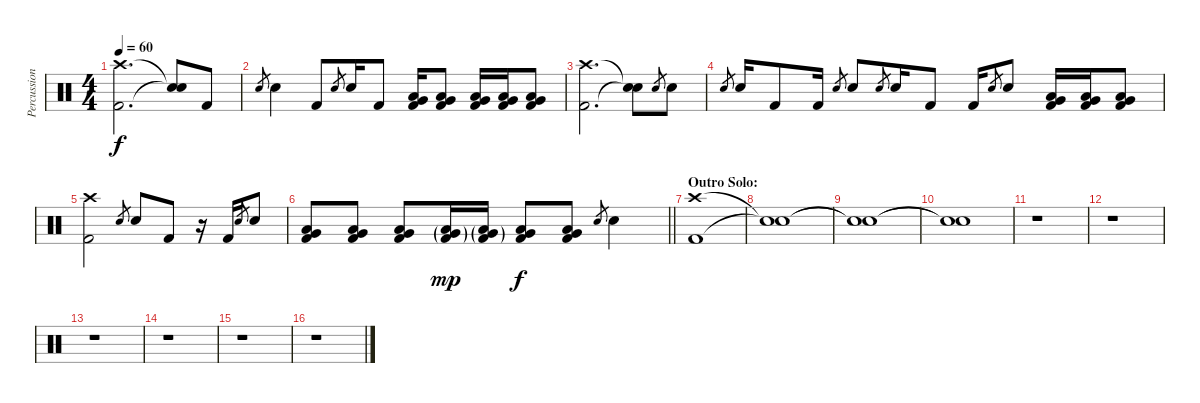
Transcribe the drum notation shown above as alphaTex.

\track ("Percussion" "Percussion") {instrument percussion}
\staff {score}
\articulation defaults
\ts (4 4)
\tempo 60
\clef neutral
\ks c
("Crash high (hit)" "Kick (hit) 2").2{d dy f} ("Snare (hit)"{t} "Snare (hit)"{t}).8 "Kick (hit) 2".8 |
"Snare (hit) 2".8{gr} "Snare (hit) 2".4 "Kick (hit) 2".8 "Snare (hit) 2".8{gr} "Snare (hit) 2".16 "Kick (hit) 2".8 ("Very Low Tom (hit)" "Low Tom (hit)" "Kick (hit) 2").16 ("Very Low Tom (hit)" "Low Tom (hit)" "Kick (hit) 2").8 ("Very Low Tom (hit)" "Low Tom (hit)" "Kick (hit) 2").16 ("Very Low Tom (hit)" "Low Tom (hit)" "Kick (hit) 2").16 ("Very Low Tom (hit)" "Low Tom (hit)" "Kick (hit) 2").8 |
("Crash high (hit)" "Kick (hit) 2").2{d} ("Snare (hit)"{t} "Snare (hit)"{t}).8 "Snare (hit) 2".8{gr} "Snare (hit) 2".8 |
"Snare (hit) 2".8{gr} "Snare (hit) 2".16 "Kick (hit) 2".8 "Kick (hit) 2".16 "Snare (hit) 2".8{gr} "Snare (hit) 2".8 "Snare (hit) 2".8{gr} "Snare (hit) 2".16 "Kick (hit) 2".8 "Kick (hit) 2".16 "Snare (hit) 2".8{gr} "Snare (hit) 2".8 ("Very Low Tom (hit)" "Low Tom (hit)" "Kick (hit) 2").16 ("Very Low Tom (hit)" "Low Tom (hit)" "Kick (hit) 2").16 ("Very Low Tom (hit)" "Low Tom (hit)" "Kick (hit) 2").8 |
("Crash high (hit)" "Kick (hit) 2").2 "Snare (hit) 2".8{gr} "Snare (hit) 2".8 "Kick (hit) 2".8 r.16 "Kick (hit) 2".16 "Snare (hit) 2".8{gr} "Snare (hit) 2".8 |
\barLineRight lightlight
("Very Low Tom (hit)" "Low Tom (hit)" "Kick (hit) 2").8 ("Very Low Tom (hit)" "Low Tom (hit)" "Kick (hit) 2").8 ("Very Low Tom (hit)" "Low Tom (hit)" "Kick (hit) 2").8 ("Very Low Tom (hit)"{g} "Low Tom (hit)"{g} "Kick (hit) 2"{g}).16{dy mp} ("Very Low Tom (hit)"{g} "Low Tom (hit)"{g} "Kick (hit) 2"{g}).16 ("Very Low Tom (hit)" "Low Tom (hit)" "Kick (hit) 2").8{dy f} ("Very Low Tom (hit)" "Low Tom (hit)" "Kick (hit) 2").8 "Snare (hit) 2".8{gr} "Snare (hit) 2".4 |
\section ("" "Outro Solo:")
("Crash high (hit)" "Kick (hit) 2").1 |
("Snare (hit)"{t} "Snare (hit)"{t}).1 |
("Snare (hit)"{t} "Snare (hit)"{t}).1 |
("Snare (hit)"{t} "Snare (hit)"{t}).1 |
r.1 |
r.1 |
r.1 |
r.1 |
r.1 |
r.1
